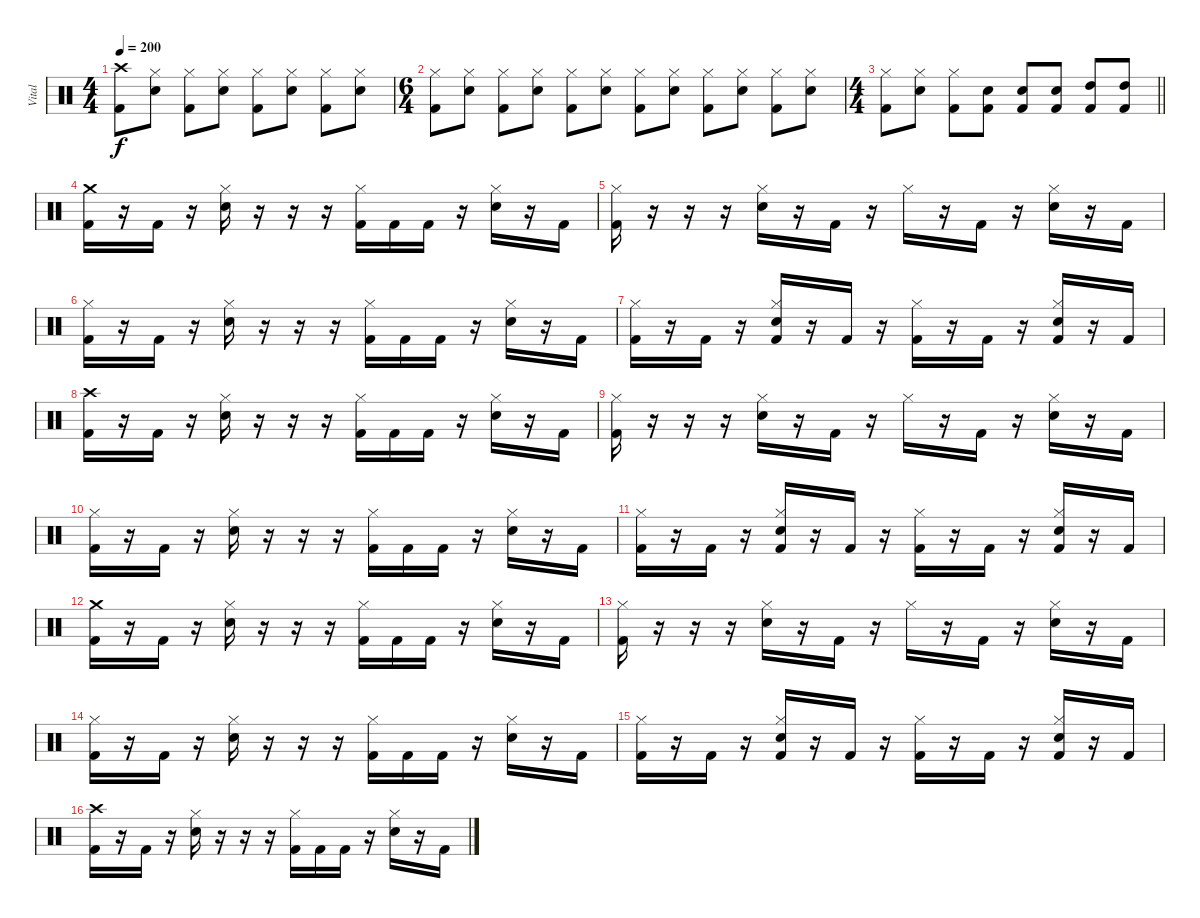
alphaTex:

\track ("Vital" "Vital") {instrument percussion}
\staff {score}
\articulation defaults
\ts (4 4)
\tempo 200
\clef neutral
\ks c
("Crash high (hit)" "Kick (hit) 2").8{dy f} ("Hi-Hat (closed)" "Snare (hit) 2").8 ("Hi-Hat (closed)" "Kick (hit) 2").8 ("Hi-Hat (closed)" "Snare (hit) 2").8 ("Hi-Hat (closed)" "Kick (hit) 2").8 ("Hi-Hat (closed)" "Snare (hit) 2").8 ("Hi-Hat (closed)" "Kick (hit) 2").8 ("Hi-Hat (closed)" "Snare (hit) 2").8 |
\ts (6 4)
("Hi-Hat (closed)" "Kick (hit) 2").8 ("Hi-Hat (closed)" "Snare (hit) 2").8 ("Hi-Hat (closed)" "Kick (hit) 2").8 ("Hi-Hat (closed)" "Snare (hit) 2").8 ("Hi-Hat (closed)" "Kick (hit) 2").8 ("Hi-Hat (closed)" "Snare (hit) 2").8 ("Hi-Hat (closed)" "Kick (hit) 2").8 ("Hi-Hat (closed)" "Snare (hit) 2").8 ("Hi-Hat (closed)" "Kick (hit) 2").8 ("Hi-Hat (closed)" "Snare (hit) 2").8 ("Hi-Hat (closed)" "Kick (hit) 2").8 ("Hi-Hat (closed)" "Snare (hit) 2").8 |
\ts (4 4)
\barLineRight lightlight
("Hi-Hat (closed)" "Kick (hit) 2").8 ("Hi-Hat (closed)" "Snare (hit) 2").8 ("Hi-Hat (closed)" "Kick (hit) 2").8 ("Snare (hit) 2" "Kick (hit) 2").8 ("Snare (hit) 2" "Kick (hit) 2").8 ("Snare (hit) 2" "Kick (hit) 2").8 ("High Tom (hit)" "Kick (hit) 2").8 ("High Tom (hit)" "Kick (hit) 2").8 |
("Crash medium (hit)" "Kick (hit) 2").16 r.16 "Kick (hit) 2".16 r.16 ("Hi-Hat (closed)" "Snare (hit) 2").16 r.16 r.16 r.16 ("Hi-Hat (closed)" "Kick (hit) 2").16 "Kick (hit) 2".16 "Kick (hit) 2".16 r.16 ("Hi-Hat (closed)" "Snare (hit) 2").16 r.16 "Kick (hit) 2".16 |
("Hi-Hat (closed)" "Kick (hit) 2").16 r.16 r.16 r.16 ("Hi-Hat (closed)" "Snare (hit) 2").16 r.16 "Kick (hit) 2".16 r.16 "Hi-Hat (closed)".16 r.16 "Kick (hit) 2".16 r.16 ("Hi-Hat (closed)" "Snare (hit) 2").16 r.16 "Kick (hit) 2".16 |
("Hi-Hat (closed)" "Kick (hit) 2").16 r.16 "Kick (hit) 2".16 r.16 ("Hi-Hat (closed)" "Snare (hit) 2").16 r.16 r.16 r.16 ("Hi-Hat (closed)" "Kick (hit) 2").16 "Kick (hit) 2".16 "Kick (hit) 2".16 r.16 ("Hi-Hat (closed)" "Snare (hit) 2").16 r.16 "Kick (hit) 2".16 |
("Hi-Hat (closed)" "Kick (hit) 2").16 r.16 "Kick (hit) 2".16 r.16 ("Hi-Hat (closed)" "Snare (hit) 2" "Kick (hit) 2").16 r.16 "Kick (hit) 2".16 r.16 ("Hi-Hat (closed)" "Kick (hit) 2").16 r.16 "Kick (hit) 2".16 r.16 ("Hi-Hat (closed)" "Snare (hit) 2" "Kick (hit) 2").16 r.16 "Kick (hit) 2".16 |
("Crash high (hit)" "Kick (hit) 2").16 r.16 "Kick (hit) 2".16 r.16 ("Hi-Hat (closed)" "Snare (hit) 2").16 r.16 r.16 r.16 ("Hi-Hat (closed)" "Kick (hit) 2").16 "Kick (hit) 2".16 "Kick (hit) 2".16 r.16 ("Hi-Hat (closed)" "Snare (hit) 2").16 r.16 "Kick (hit) 2".16 |
("Hi-Hat (closed)" "Kick (hit) 2").16 r.16 r.16 r.16 ("Hi-Hat (closed)" "Snare (hit) 2").16 r.16 "Kick (hit) 2".16 r.16 "Hi-Hat (closed)".16 r.16 "Kick (hit) 2".16 r.16 ("Hi-Hat (closed)" "Snare (hit) 2").16 r.16 "Kick (hit) 2".16 |
("Hi-Hat (closed)" "Kick (hit) 2").16 r.16 "Kick (hit) 2".16 r.16 ("Hi-Hat (closed)" "Snare (hit) 2").16 r.16 r.16 r.16 ("Hi-Hat (closed)" "Kick (hit) 2").16 "Kick (hit) 2".16 "Kick (hit) 2".16 r.16 ("Hi-Hat (closed)" "Snare (hit) 2").16 r.16 "Kick (hit) 2".16 |
("Hi-Hat (closed)" "Kick (hit) 2").16 r.16 "Kick (hit) 2".16 r.16 ("Hi-Hat (closed)" "Snare (hit) 2" "Kick (hit) 2").16 r.16 "Kick (hit) 2".16 r.16 ("Hi-Hat (closed)" "Kick (hit) 2").16 r.16 "Kick (hit) 2".16 r.16 ("Hi-Hat (closed)" "Snare (hit) 2" "Kick (hit) 2").16 r.16 "Kick (hit) 2".16 |
("Crash medium (hit)" "Kick (hit) 2").16 r.16 "Kick (hit) 2".16 r.16 ("Hi-Hat (closed)" "Snare (hit) 2").16 r.16 r.16 r.16 ("Hi-Hat (closed)" "Kick (hit) 2").16 "Kick (hit) 2".16 "Kick (hit) 2".16 r.16 ("Hi-Hat (closed)" "Snare (hit) 2").16 r.16 "Kick (hit) 2".16 |
("Hi-Hat (closed)" "Kick (hit) 2").16 r.16 r.16 r.16 ("Hi-Hat (closed)" "Snare (hit) 2").16 r.16 "Kick (hit) 2".16 r.16 "Hi-Hat (closed)".16 r.16 "Kick (hit) 2".16 r.16 ("Hi-Hat (closed)" "Snare (hit) 2").16 r.16 "Kick (hit) 2".16 |
("Hi-Hat (closed)" "Kick (hit) 2").16 r.16 "Kick (hit) 2".16 r.16 ("Hi-Hat (closed)" "Snare (hit) 2").16 r.16 r.16 r.16 ("Hi-Hat (closed)" "Kick (hit) 2").16 "Kick (hit) 2".16 "Kick (hit) 2".16 r.16 ("Hi-Hat (closed)" "Snare (hit) 2").16 r.16 "Kick (hit) 2".16 |
("Hi-Hat (closed)" "Kick (hit) 2").16 r.16 "Kick (hit) 2".16 r.16 ("Hi-Hat (closed)" "Snare (hit) 2" "Kick (hit) 2").16 r.16 "Kick (hit) 2".16 r.16 ("Hi-Hat (closed)" "Kick (hit) 2").16 r.16 "Kick (hit) 2".16 r.16 ("Hi-Hat (closed)" "Snare (hit) 2" "Kick (hit) 2").16 r.16 "Kick (hit) 2".16 |
("Crash high (hit)" "Kick (hit) 2").16 r.16 "Kick (hit) 2".16 r.16 ("Hi-Hat (closed)" "Snare (hit) 2").16 r.16 r.16 r.16 ("Hi-Hat (closed)" "Kick (hit) 2").16 "Kick (hit) 2".16 "Kick (hit) 2".16 r.16 ("Hi-Hat (closed)" "Snare (hit) 2").16 r.16 "Kick (hit) 2".16
